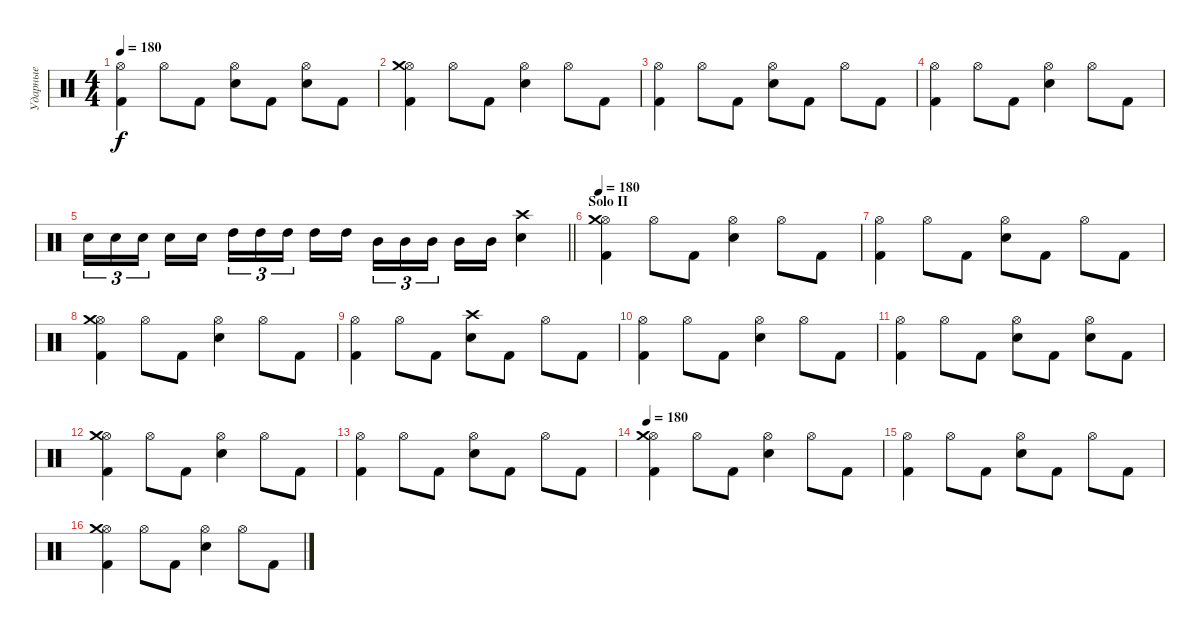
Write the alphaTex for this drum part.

\track ("Ударные" "Ударные") {instrument percussion}
\staff {score}
\articulation defaults
\ts (4 4)
\tempo 180
\clef neutral
\ks c
("Kick (hit) 2" "Hi-Hat (open)").4{dy f} "Hi-Hat (open)".8 "Kick (hit) 2".8 ("Electric Snare (hit)" "Hi-Hat (open)").8 "Kick (hit) 2".8 ("Electric Snare (hit)" "Hi-Hat (open)").8 "Kick (hit) 2".8 |
("Kick (hit) 2" "Hi-Hat (open)" "Crash medium (hit)").4 "Hi-Hat (open)".8 "Kick (hit) 2".8 ("Electric Snare (hit)" "Hi-Hat (open)").4 "Hi-Hat (open)".8 "Kick (hit) 2".8 |
("Kick (hit) 2" "Hi-Hat (open)").4 "Hi-Hat (open)".8 "Kick (hit) 2".8 ("Electric Snare (hit)" "Hi-Hat (open)").8 "Kick (hit) 2".8 "Hi-Hat (open)".8 "Kick (hit) 2".8 |
("Kick (hit) 2" "Hi-Hat (open)").4 "Hi-Hat (open)".8 "Kick (hit) 2".8 ("Electric Snare (hit)" "Hi-Hat (open)").4 "Hi-Hat (open)".8 "Kick (hit) 2".8 |
\barLineRight lightlight "Electric Snare (hit)".16{tu (3 2)} "Electric Snare (hit)".16{tu (3 2)} "Electric Snare (hit)".16{tu (3 2) beam splitsecondary} "Electric Snare (hit)".16 "Electric Snare (hit)".16 "High Tom (hit)".16{tu (3 2)} "High Tom (hit)".16{tu (3 2)} "High Tom (hit)".16{tu (3 2) beam splitsecondary} "High Tom (hit)".16 "High Tom (hit)".16 "Mid Tom (hit)".16{tu (3 2)} "Mid Tom (hit)".16{tu (3 2)} "Mid Tom (hit)".16{tu (3 2) beam splitsecondary} "Mid Tom (hit)".16 "Mid Tom (hit)".16
("Electric Snare (hit)" "Crash high (hit)").4 |
\section ("" "Solo II")
\tempo 180
("Kick (hit) 2" "Hi-Hat (open)" "Crash medium (hit)").4 "Hi-Hat (open)".8 "Kick (hit) 2".8 ("Electric Snare (hit)" "Hi-Hat (open)").4 "Hi-Hat (open)".8 "Kick (hit) 2".8 |
("Kick (hit) 2" "Hi-Hat (open)").4 "Hi-Hat (open)".8 "Kick (hit) 2".8 ("Electric Snare (hit)" "Hi-Hat (open)").8 "Kick (hit) 2".8 "Hi-Hat (open)".8 "Kick (hit) 2".8 |
("Kick (hit) 2" "Hi-Hat (open)" "Crash medium (hit)").4 "Hi-Hat (open)".8 "Kick (hit) 2".8 ("Electric Snare (hit)" "Hi-Hat (open)").4 "Hi-Hat (open)".8 "Kick (hit) 2".8 |
("Kick (hit) 2" "Hi-Hat (open)").4 "Hi-Hat (open)".8 "Kick (hit) 2".8 ("Electric Snare (hit)" "Crash high (hit)").8 "Kick (hit) 2".8 "Hi-Hat (open)".8 "Kick (hit) 2".8 |
("Kick (hit) 2" "Hi-Hat (open)").4 "Hi-Hat (open)".8 "Kick (hit) 2".8 ("Electric Snare (hit)" "Hi-Hat (open)").4 "Hi-Hat (open)".8 "Kick (hit) 2".8 |
("Kick (hit) 2" "Hi-Hat (open)").4 "Hi-Hat (open)".8 "Kick (hit) 2".8 ("Electric Snare (hit)" "Hi-Hat (open)").8 "Kick (hit) 2".8 ("Electric Snare (hit)" "Hi-Hat (open)").8 "Kick (hit) 2".8 |
("Kick (hit) 2" "Hi-Hat (open)" "Crash medium (hit)").4 "Hi-Hat (open)".8 "Kick (hit) 2".8 ("Electric Snare (hit)" "Hi-Hat (open)").4 "Hi-Hat (open)".8 "Kick (hit) 2".8 |
("Kick (hit) 2" "Hi-Hat (open)").4 "Hi-Hat (open)".8 "Kick (hit) 2".8 ("Electric Snare (hit)" "Hi-Hat (open)").8 "Kick (hit) 2".8 "Hi-Hat (open)".8 "Kick (hit) 2".8 |
\tempo 180
("Kick (hit) 2" "Hi-Hat (open)" "Crash medium (hit)").4 "Hi-Hat (open)".8 "Kick (hit) 2".8 ("Electric Snare (hit)" "Hi-Hat (open)").4 "Hi-Hat (open)".8 "Kick (hit) 2".8 |
("Kick (hit) 2" "Hi-Hat (open)").4 "Hi-Hat (open)".8 "Kick (hit) 2".8 ("Electric Snare (hit)" "Hi-Hat (open)").8 "Kick (hit) 2".8 "Hi-Hat (open)".8 "Kick (hit) 2".8 |
("Kick (hit) 2" "Hi-Hat (open)" "Crash medium (hit)").4 "Hi-Hat (open)".8 "Kick (hit) 2".8 ("Electric Snare (hit)" "Hi-Hat (open)").4 "Hi-Hat (open)".8 "Kick (hit) 2".8
